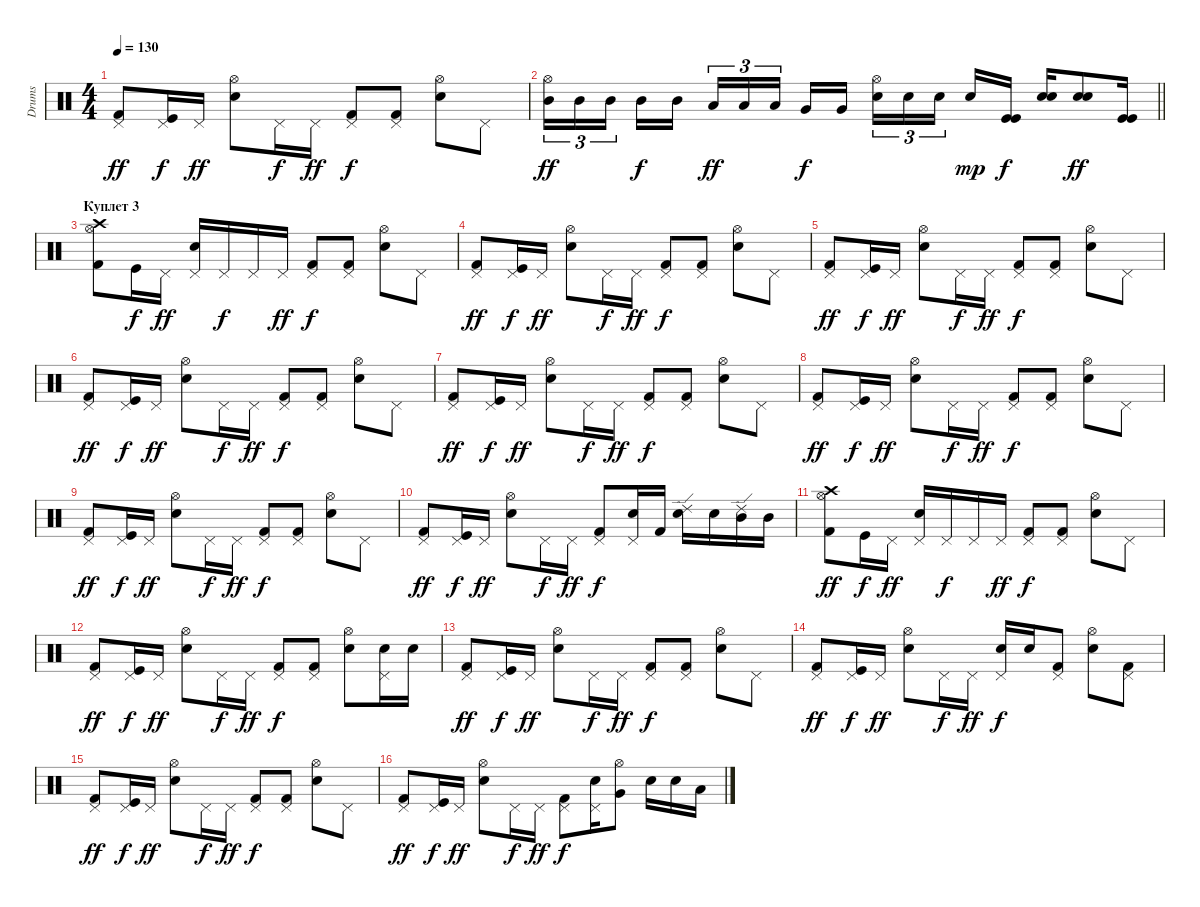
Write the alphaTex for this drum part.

\track ("Drums" "Drums") {instrument percussion}
\staff {score}
\articulation defaults
\ts (4 4)
\tempo 130
\clef neutral
\ks c
("Pedal Hi-Hat (hit)" "Kick (hit) 2").8{dy ff} ("Pedal Hi-Hat (hit)" "Kick (hit)").16{dy f} "Pedal Hi-Hat (hit)".16{dy ff} ("Hi-Hat (open)" "Snare (hit) 2").8 "Pedal Hi-Hat (hit)".16{dy f} "Pedal Hi-Hat (hit)".16{dy ff} ("Pedal Hi-Hat (hit)" "Kick (hit) 2").8{dy f} ("Pedal Hi-Hat (hit)" "Kick (hit) 2").8 ("Hi-Hat (open)" "Snare (hit) 2").8 "Pedal Hi-Hat (hit)".8 |
\barLineRight lightlight
("Hi-Hat (open)" "Mid Tom (hit)").16{tu (3 2) dy ff} "Mid Tom (hit)".16{tu (3 2)} "Mid Tom (hit)".16{tu (3 2)} "Mid Tom (hit)".16{dy f} "Mid Tom (hit)".16 "Low Tom (hit)".16{tu (3 2) dy ff} "Low Tom (hit)".16{tu (3 2)} "Low Tom (hit)".16{tu (3 2)} "Very Low Tom (hit)".16{dy f} "Very Low Tom (hit)".16 ("Hi-Hat (open)" "Snare (hit) 2").16{tu (3 2)} "Snare (hit) 2".16{tu (3 2)} "Snare (hit) 2".16{tu (3 2)} "Snare (hit) 2".16{dy mp} ("Kick (hit)" "Kick (hit)").16{dy f} ("Snare (hit) 2" "Snare (hit) 2").16 ("Snare (hit) 2" "Snare (hit) 2").8{dy ff} ("Kick (hit)" "Kick (hit)").16 |
\section ("" "Куплет 3")
("Crash high (hit)" "Kick (hit) 2" "Hi-Hat (open)").8 "Kick (hit)".16{dy f} "Pedal Hi-Hat (hit)".16{dy ff} ("Pedal Hi-Hat (hit)" "Snare (hit) 2").16 "Pedal Hi-Hat (hit)".16{dy f} "Pedal Hi-Hat (hit)".16 "Pedal Hi-Hat (hit)".16{dy ff} ("Pedal Hi-Hat (hit)" "Kick (hit) 2").8{dy f} ("Pedal Hi-Hat (hit)" "Kick (hit) 2").8 ("Hi-Hat (open)" "Snare (hit) 2").8 "Pedal Hi-Hat (hit)".8 |
("Pedal Hi-Hat (hit)" "Kick (hit) 2").8{dy ff} ("Pedal Hi-Hat (hit)" "Kick (hit)").16{dy f} "Pedal Hi-Hat (hit)".16{dy ff} ("Hi-Hat (open)" "Snare (hit) 2").8 "Pedal Hi-Hat (hit)".16{dy f} "Pedal Hi-Hat (hit)".16{dy ff} ("Pedal Hi-Hat (hit)" "Kick (hit) 2").8{dy f} ("Pedal Hi-Hat (hit)" "Kick (hit) 2").8 ("Hi-Hat (open)" "Snare (hit) 2").8 "Pedal Hi-Hat (hit)".8 |
("Pedal Hi-Hat (hit)" "Kick (hit) 2").8{dy ff} ("Pedal Hi-Hat (hit)" "Kick (hit)").16{dy f} "Pedal Hi-Hat (hit)".16{dy ff} ("Hi-Hat (open)" "Snare (hit) 2").8 "Pedal Hi-Hat (hit)".16{dy f} "Pedal Hi-Hat (hit)".16{dy ff} ("Pedal Hi-Hat (hit)" "Kick (hit) 2").8{dy f} ("Pedal Hi-Hat (hit)" "Kick (hit) 2").8 ("Hi-Hat (open)" "Snare (hit) 2").8 "Pedal Hi-Hat (hit)".8 |
("Pedal Hi-Hat (hit)" "Kick (hit) 2").8{dy ff} ("Pedal Hi-Hat (hit)" "Kick (hit)").16{dy f} "Pedal Hi-Hat (hit)".16{dy ff} ("Hi-Hat (open)" "Snare (hit) 2").8 "Pedal Hi-Hat (hit)".16{dy f} "Pedal Hi-Hat (hit)".16{dy ff} ("Pedal Hi-Hat (hit)" "Kick (hit) 2").8{dy f} ("Pedal Hi-Hat (hit)" "Kick (hit) 2").8 ("Hi-Hat (open)" "Snare (hit) 2").8 "Pedal Hi-Hat (hit)".8 |
("Pedal Hi-Hat (hit)" "Kick (hit) 2").8{dy ff} ("Pedal Hi-Hat (hit)" "Kick (hit)").16{dy f} "Pedal Hi-Hat (hit)".16{dy ff} ("Hi-Hat (open)" "Snare (hit) 2").8 "Pedal Hi-Hat (hit)".16{dy f} "Pedal Hi-Hat (hit)".16{dy ff} ("Pedal Hi-Hat (hit)" "Kick (hit) 2").8{dy f} ("Pedal Hi-Hat (hit)" "Kick (hit) 2").8 ("Hi-Hat (open)" "Snare (hit) 2").8 "Pedal Hi-Hat (hit)".8 |
("Pedal Hi-Hat (hit)" "Kick (hit) 2").8{dy ff} ("Pedal Hi-Hat (hit)" "Kick (hit)").16{dy f} "Pedal Hi-Hat (hit)".16{dy ff} ("Hi-Hat (open)" "Snare (hit) 2").8 "Pedal Hi-Hat (hit)".16{dy f} "Pedal Hi-Hat (hit)".16{dy ff} ("Pedal Hi-Hat (hit)" "Kick (hit) 2").8{dy f} ("Pedal Hi-Hat (hit)" "Kick (hit) 2").8 ("Hi-Hat (open)" "Snare (hit) 2").8 "Pedal Hi-Hat (hit)".8 |
("Pedal Hi-Hat (hit)" "Kick (hit) 2").8{dy ff} ("Pedal Hi-Hat (hit)" "Kick (hit)").16{dy f} "Pedal Hi-Hat (hit)".16{dy ff} ("Hi-Hat (open)" "Snare (hit) 2").8 "Pedal Hi-Hat (hit)".16{dy f} "Pedal Hi-Hat (hit)".16{dy ff} ("Pedal Hi-Hat (hit)" "Kick (hit) 2").8{dy f} ("Pedal Hi-Hat (hit)" "Kick (hit) 2").8 ("Hi-Hat (open)" "Snare (hit) 2").8 "Pedal Hi-Hat (hit)".8 |
("Pedal Hi-Hat (hit)" "Kick (hit) 2").8{dy ff} ("Pedal Hi-Hat (hit)" "Kick (hit)").16{dy f} "Pedal Hi-Hat (hit)".16{dy ff} ("Hi-Hat (open)" "Snare (hit) 2").8 "Pedal Hi-Hat (hit)".16{dy f} "Pedal Hi-Hat (hit)".16{dy ff} ("Pedal Hi-Hat (hit)" "Kick (hit) 2").8{dy f} ("Pedal Hi-Hat (hit)" "Snare (hit) 2").16 "Kick (hit) 2".16 ("Ride (edge) 2" "Snare (hit) 2").16 "Snare (hit) 2".16 ("Ride (edge) 2" "Mid Tom (hit)").16 "Mid Tom (hit)".16 |
("Crash high (hit)" "Kick (hit) 2" "Hi-Hat (open)").8{dy ff} "Kick (hit)".16{dy f} "Pedal Hi-Hat (hit)".16{dy ff} ("Pedal Hi-Hat (hit)" "Snare (hit) 2").16 "Pedal Hi-Hat (hit)".16{dy f} "Pedal Hi-Hat (hit)".16 "Pedal Hi-Hat (hit)".16{dy ff} ("Pedal Hi-Hat (hit)" "Kick (hit) 2").8{dy f} ("Pedal Hi-Hat (hit)" "Kick (hit) 2").8 ("Hi-Hat (open)" "Snare (hit) 2").8 "Pedal Hi-Hat (hit)".8 |
("Pedal Hi-Hat (hit)" "Kick (hit) 2").8{dy ff} ("Pedal Hi-Hat (hit)" "Kick (hit)").16{dy f} "Pedal Hi-Hat (hit)".16{dy ff} ("Hi-Hat (open)" "Snare (hit) 2").8 "Pedal Hi-Hat (hit)".16{dy f} "Pedal Hi-Hat (hit)".16{dy ff} ("Pedal Hi-Hat (hit)" "Kick (hit) 2").8{dy f} ("Pedal Hi-Hat (hit)" "Kick (hit) 2").8 ("Hi-Hat (open)" "Snare (hit) 2").8 ("Pedal Hi-Hat (hit)" "Snare (hit) 2").16 "Snare (hit) 2".16 |
("Pedal Hi-Hat (hit)" "Kick (hit) 2").8{dy ff} ("Pedal Hi-Hat (hit)" "Kick (hit)").16{dy f} "Pedal Hi-Hat (hit)".16{dy ff} ("Hi-Hat (open)" "Snare (hit) 2").8 "Pedal Hi-Hat (hit)".16{dy f} "Pedal Hi-Hat (hit)".16{dy ff} ("Pedal Hi-Hat (hit)" "Kick (hit) 2").8{dy f} ("Pedal Hi-Hat (hit)" "Kick (hit) 2").8 ("Hi-Hat (open)" "Snare (hit) 2").8 "Pedal Hi-Hat (hit)".8 |
("Pedal Hi-Hat (hit)" "Kick (hit) 2").8{dy ff} ("Pedal Hi-Hat (hit)" "Kick (hit)").16{dy f} "Pedal Hi-Hat (hit)".16{dy ff} ("Hi-Hat (open)" "Snare (hit) 2").8 "Pedal Hi-Hat (hit)".16{dy f} "Pedal Hi-Hat (hit)".16{dy ff} ("Pedal Hi-Hat (hit)" "Snare (hit) 2").16{dy f} "Snare (hit) 2".16 ("Pedal Hi-Hat (hit)" "Kick (hit) 2").8 ("Hi-Hat (open)" "Snare (hit) 2").8 ("Pedal Hi-Hat (hit)" "Kick (hit) 2").8 |
("Pedal Hi-Hat (hit)" "Kick (hit) 2").8{dy ff} ("Pedal Hi-Hat (hit)" "Kick (hit)").16{dy f} "Pedal Hi-Hat (hit)".16{dy ff} ("Hi-Hat (open)" "Snare (hit) 2").8 "Pedal Hi-Hat (hit)".16{dy f} "Pedal Hi-Hat (hit)".16{dy ff} ("Pedal Hi-Hat (hit)" "Kick (hit) 2").8{dy f} ("Pedal Hi-Hat (hit)" "Kick (hit) 2").8 ("Hi-Hat (open)" "Snare (hit) 2").8 "Pedal Hi-Hat (hit)".8 |
("Pedal Hi-Hat (hit)" "Kick (hit) 2").8{dy ff} ("Pedal Hi-Hat (hit)" "Kick (hit)").16{dy f} "Pedal Hi-Hat (hit)".16{dy ff} ("Hi-Hat (open)" "Snare (hit) 2").8 "Pedal Hi-Hat (hit)".16{dy f} "Pedal Hi-Hat (hit)".16{dy ff} ("Pedal Hi-Hat (hit)" "Kick (hit) 2").8{dy f} ("Pedal Hi-Hat (hit)" "Snare (hit) 2").16 ("Hi-Hat (open)" "Very Low Tom (hit)").8 "Snare (hit) 2".16 "Snare (hit) 2".16 "Low Floor Tom (hit)".16
